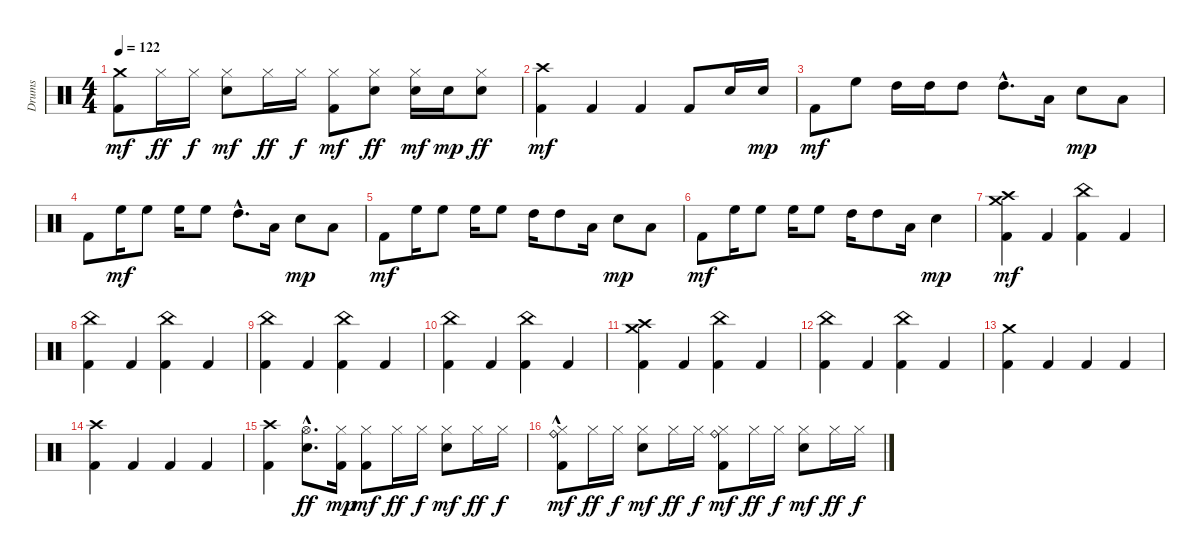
\track ("Drums" "Drums") {instrument percussion}
\staff {score}
\articulation defaults
\ts (4 4)
\tempo 122
\clef neutral
\ks c
("Kick (hit) 2" "Crash medium (hit)").8{dy mf} "Hi-Hat (closed)".16{dy ff} "Hi-Hat (closed)".16{dy f} ("Snare (hit) 2" "Hi-Hat (closed)").8{dy mf} "Hi-Hat (closed)".16{dy ff} "Hi-Hat (closed)".16{dy f} ("Kick (hit) 2" "Hi-Hat (closed)").8{dy mf} ("Snare (hit) 2" "Hi-Hat (closed)").8{dy ff} ("Snare (hit) 2" "Hi-Hat (closed)").16{dy mf} "Snare (hit) 2".16{dy mp} ("Snare (hit) 2" "Hi-Hat (closed)").8{dy ff} |
("Kick (hit) 2" "Crash high (hit)").4{dy mf} "Kick (hit) 2".4 "Kick (hit) 2".4 "Kick (hit) 2".8 "Snare (hit) 2".16 "Snare (hit) 2".16{dy mp} |
"Kick (hit) 2".8{dy mf volume 12} "High Floor Tom (hit)".8 "High Tom (hit)".16 "High Tom (hit)".16 "High Tom (hit)".8 "High Tom (hit)"{hac}.8{d} "Low Tom (hit)".16 "Snare (hit) 2".8{dy mp} "Low Floor Tom (hit)".8 |
"Kick (hit) 2".8 "High Floor Tom (hit)".16{dy mf} "High Floor Tom (hit)".8 "High Floor Tom (hit)".16 "High Floor Tom (hit)".8 "High Tom (hit)"{hac}.8{d} "Low Tom (hit)".16 "Snare (hit) 2".8{dy mp} "Low Floor Tom (hit)".8 |
"Kick (hit) 2".8{dy mf} "High Floor Tom (hit)".16 "High Floor Tom (hit)".8 "High Floor Tom (hit)".16 "High Floor Tom (hit)".8 "High Tom (hit)".16 "High Tom (hit)".8 "Low Tom (hit)".16 "Snare (hit) 2".8{dy mp} "Low Floor Tom (hit)".8 |
"Kick (hit) 2".8{dy mf} "High Floor Tom (hit)".16 "High Floor Tom (hit)".8 "High Floor Tom (hit)".16 "High Floor Tom (hit)".8 "High Tom (hit)".16 "High Tom (hit)".8 "Low Tom (hit)".16 "Snare (hit) 2".4{dy mp} |
("Kick (hit) 2" "Crash high (hit)" "Crash medium (hit)").4{dy mf volume 16} "Kick (hit) 2".4 ("Kick (hit) 2" "China (hit)").4 "Kick (hit) 2".4 |
("Kick (hit) 2" "China (hit)").4 "Kick (hit) 2".4 ("Kick (hit) 2" "China (hit)").4 "Kick (hit) 2".4 |
("Kick (hit) 2" "China (hit)").4 "Kick (hit) 2".4 ("Kick (hit) 2" "China (hit)").4 "Kick (hit) 2".4 |
("Kick (hit) 2" "China (hit)").4 "Kick (hit) 2".4 ("Kick (hit) 2" "China (hit)").4 "Kick (hit) 2".4 |
("Kick (hit) 2" "Crash high (hit)" "Crash medium (hit)").4 "Kick (hit) 2".4 ("Kick (hit) 2" "China (hit)").4 "Kick (hit) 2".4 |
("Kick (hit) 2" "China (hit)").4 "Kick (hit) 2".4 ("Kick (hit) 2" "China (hit)").4 "Kick (hit) 2".4 |
("Kick (hit) 2" "Crash medium (hit)").4 "Kick (hit) 2".4 "Kick (hit) 2".4 "Kick (hit) 2".4 |
("Kick (hit) 2" "Crash high (hit)").4 "Kick (hit) 2".4 "Kick (hit) 2".4 "Kick (hit) 2".4 |
("Kick (hit) 2" "Crash high (hit)").4 ("Snare (hit) 2"{hac} "Hi-Hat (open)"{hac}).8{d dy ff} ("Hi-Hat (closed)" "Kick (hit) 2").16{dy mp} ("Hi-Hat (closed)" "Kick (hit) 2").8{dy mf} "Hi-Hat (closed)".16{dy ff} "Hi-Hat (closed)".16{dy f} ("Hi-Hat (closed)" "Snare (hit) 2").8{dy mf} "Hi-Hat (closed)".16{dy ff} "Hi-Hat (closed)".16{dy f} |
("Ride (bell)"{hac} "Hi-Hat (closed)" "Kick (hit) 2").8{dy mf} "Hi-Hat (closed)".16{dy ff} "Hi-Hat (closed)".16{dy f} ("Hi-Hat (closed)" "Snare (hit) 2").8{dy mf} "Hi-Hat (closed)".16{dy ff} "Hi-Hat (closed)".16{dy f} ("Ride (bell)" "Hi-Hat (closed)" "Kick (hit) 2").8{dy mf} "Hi-Hat (closed)".16{dy ff} "Hi-Hat (closed)".16{dy f} ("Hi-Hat (closed)" "Snare (hit) 2").8{dy mf} "Hi-Hat (closed)".16{dy ff} "Hi-Hat (closed)".16{dy f}
